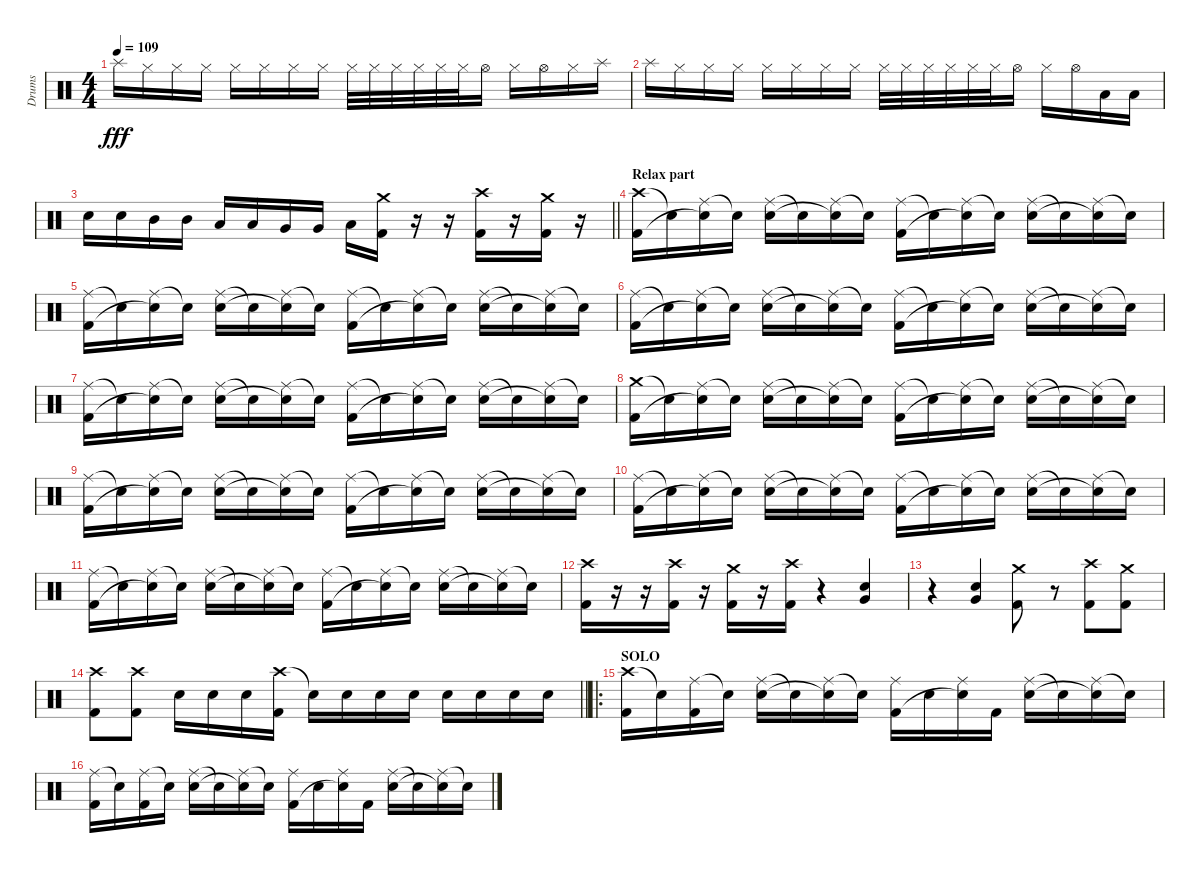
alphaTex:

\track ("Drums" "Drums") {instrument percussion}
\staff {score}
\articulation defaults
\ts (4 4)
\tempo 109
\clef neutral
\ks c "Splash (hit)".16{dy fff} "Hi-Hat (closed)".16 "Hi-Hat (closed)".16 "Hi-Hat (closed)".16 "Hi-Hat (closed)".16 "Hi-Hat (closed)".16 "Hi-Hat (closed)".16 "Hi-Hat (closed)".16 "Hi-Hat (closed)".32 "Hi-Hat (closed)".32 "Hi-Hat (closed)".32 "Hi-Hat (closed)".32 "Hi-Hat (closed)".32 "Hi-Hat (closed)".32 "Hi-Hat (open)".16 "Hi-Hat (closed)".16 "Hi-Hat (open)".16 "Hi-Hat (closed)".16 "Splash (hit)".16
|
"Splash (hit)".16 "Hi-Hat (closed)".16 "Hi-Hat (closed)".16 "Hi-Hat (closed)".16 "Hi-Hat (closed)".16 "Hi-Hat (closed)".16 "Hi-Hat (closed)".16 "Hi-Hat (closed)".16 "Hi-Hat (closed)".32 "Hi-Hat (closed)".32 "Hi-Hat (closed)".32 "Hi-Hat (closed)".32 "Hi-Hat (closed)".32 "Hi-Hat (closed)".32 "Hi-Hat (open)".16 "Hi-Hat (closed)".16 "Hi-Hat (open)".16 "Low Tom (hit)".16 "Low Tom (hit)".16 |
\barLineRight lightlight "Electric Snare (hit)".16 "Electric Snare (hit)".16 "Mid Tom (hit)".16 "Mid Tom (hit)".16 "Low Tom (hit)".16 "Low Tom (hit)".16 "Very Low Tom (hit)".16 "Very Low Tom (hit)".16 "Low Floor Tom (hit)".16
("Crash medium (hit)" "Kick (hit) 2").16 r.16 r.16 ("Crash high (hit)" "Kick (hit) 2").16 r.16 ("Crash medium (hit)" "Kick (hit) 2").16 r.16 |
\section ("" "Relax part")
("Crash high (hit)" "Kick (hit) 2").16 "Snare (hit)"{t}.16 ("Ride (middle)" "Snare (hit)"{t}).16 "Snare (hit)"{t}.16 ("Ride (middle)" "Electric Snare (hit)").16 "Snare (hit)"{t}.16 ("Ride (middle)" "Snare (hit)"{t}).16 "Snare (hit)"{t}.16 ("Ride (middle)" "Kick (hit) 2").16 "Snare (hit)"{t}.16 ("Ride (middle)" "Snare (hit)"{t}).16 "Snare (hit)"{t}.16 ("Ride (middle)" "Electric Snare (hit)").16 "Snare (hit)"{t}.16 ("Ride (middle)" "Snare (hit)"{t}).16 "Snare (hit)"{t}.16 |
("Ride (middle)" "Kick (hit) 2").16 "Snare (hit)"{t}.16 ("Ride (middle)" "Snare (hit)"{t}).16 "Snare (hit)"{t}.16 ("Ride (middle)" "Electric Snare (hit)").16 "Snare (hit)"{t}.16 ("Ride (middle)" "Snare (hit)"{t}).16 "Snare (hit)"{t}.16 ("Ride (middle)" "Kick (hit) 2").16 "Snare (hit)"{t}.16 ("Ride (middle)" "Snare (hit)"{t}).16 "Snare (hit)"{t}.16 ("Ride (middle)" "Electric Snare (hit)").16 "Snare (hit)"{t}.16 ("Ride (middle)" "Snare (hit)"{t}).16 "Snare (hit)"{t}.16 |
("Ride (middle)" "Kick (hit) 2").16 "Snare (hit)"{t}.16 ("Ride (middle)" "Snare (hit)"{t}).16 "Snare (hit)"{t}.16 ("Ride (middle)" "Electric Snare (hit)").16 "Snare (hit)"{t}.16 ("Ride (middle)" "Snare (hit)"{t}).16 "Snare (hit)"{t}.16 ("Ride (middle)" "Kick (hit) 2").16 "Snare (hit)"{t}.16 ("Ride (middle)" "Snare (hit)"{t}).16 "Snare (hit)"{t}.16 ("Ride (middle)" "Electric Snare (hit)").16 "Snare (hit)"{t}.16 ("Ride (middle)" "Snare (hit)"{t}).16 "Snare (hit)"{t}.16 |
("Ride (middle)" "Kick (hit) 2").16 "Snare (hit)"{t}.16 ("Ride (middle)" "Snare (hit)"{t}).16 "Snare (hit)"{t}.16 ("Ride (middle)" "Electric Snare (hit)").16 "Snare (hit)"{t}.16 ("Ride (middle)" "Snare (hit)"{t}).16 "Snare (hit)"{t}.16 ("Ride (middle)" "Kick (hit) 2").16 "Snare (hit)"{t}.16 ("Ride (middle)" "Snare (hit)"{t}).16 "Snare (hit)"{t}.16 ("Ride (middle)" "Electric Snare (hit)").16 "Snare (hit)"{t}.16 ("Ride (middle)" "Snare (hit)"{t}).16 "Snare (hit)"{t}.16 |
("Crash medium (hit)" "Kick (hit) 2").16 "Snare (hit)"{t}.16 ("Ride (middle)" "Snare (hit)"{t}).16 "Snare (hit)"{t}.16 ("Ride (middle)" "Electric Snare (hit)").16 "Snare (hit)"{t}.16 ("Ride (middle)" "Snare (hit)"{t}).16 "Snare (hit)"{t}.16 ("Ride (middle)" "Kick (hit) 2").16 "Snare (hit)"{t}.16 ("Ride (middle)" "Snare (hit)"{t}).16 "Snare (hit)"{t}.16 ("Ride (middle)" "Electric Snare (hit)").16 "Snare (hit)"{t}.16 ("Ride (middle)" "Snare (hit)"{t}).16 "Snare (hit)"{t}.16 |
("Ride (middle)" "Kick (hit) 2").16 "Snare (hit)"{t}.16 ("Ride (middle)" "Snare (hit)"{t}).16 "Snare (hit)"{t}.16 ("Ride (middle)" "Electric Snare (hit)").16 "Snare (hit)"{t}.16 ("Ride (middle)" "Snare (hit)"{t}).16 "Snare (hit)"{t}.16 ("Ride (middle)" "Kick (hit) 2").16 "Snare (hit)"{t}.16 ("Ride (middle)" "Snare (hit)"{t}).16 "Snare (hit)"{t}.16 ("Ride (middle)" "Electric Snare (hit)").16 "Snare (hit)"{t}.16 ("Ride (middle)" "Snare (hit)"{t}).16 "Snare (hit)"{t}.16 |
("Ride (middle)" "Kick (hit) 2").16 "Snare (hit)"{t}.16 ("Ride (middle)" "Snare (hit)"{t}).16 "Snare (hit)"{t}.16 ("Ride (middle)" "Electric Snare (hit)").16 "Snare (hit)"{t}.16 ("Ride (middle)" "Snare (hit)"{t}).16 "Snare (hit)"{t}.16 ("Ride (middle)" "Kick (hit) 2").16 "Snare (hit)"{t}.16 ("Ride (middle)" "Snare (hit)"{t}).16 "Snare (hit)"{t}.16 ("Ride (middle)" "Electric Snare (hit)").16 "Snare (hit)"{t}.16 ("Ride (middle)" "Snare (hit)"{t}).16 "Snare (hit)"{t}.16 |
("Ride (middle)" "Kick (hit) 2").16 "Snare (hit)"{t}.16 ("Ride (middle)" "Snare (hit)"{t}).16 "Snare (hit)"{t}.16 ("Ride (middle)" "Electric Snare (hit)").16 "Snare (hit)"{t}.16 ("Ride (middle)" "Snare (hit)"{t}).16 "Snare (hit)"{t}.16 ("Ride (middle)" "Kick (hit) 2").16 "Snare (hit)"{t}.16 ("Ride (middle)" "Snare (hit)"{t}).16 "Snare (hit)"{t}.16 ("Ride (middle)" "Electric Snare (hit)").16 "Snare (hit)"{t}.16 ("Ride (middle)" "Snare (hit)"{t}).16 "Snare (hit)"{t}.16 |
("Crash high (hit)" "Kick (hit) 2").16 r.16{volume 0} r.16 ("Crash high (hit)" "Kick (hit) 2").16{volume 16} r.16 ("Crash medium (hit)" "Kick (hit) 2").16 r.16 ("Crash high (hit)" "Kick (hit) 2").16 r.4 ("Electric Snare (hit)" "Very Low Tom (hit)").4 |
r.4 ("Electric Snare (hit)" "Very Low Tom (hit)").4 ("Crash medium (hit)" "Kick (hit) 2").8 r.8 ("Crash high (hit)" "Kick (hit) 2").8 ("Crash medium (hit)" "Kick (hit) 2").8 |
\barLineRight lightlight
("Crash high (hit)" "Kick (hit) 2").8 ("Crash high (hit)" "Kick (hit) 2").8 "Electric Snare (hit)".16 "Electric Snare (hit)".16 "Electric Snare (hit)".16 ("Crash high (hit)" "Kick (hit) 2").16 "Electric Snare (hit)"{t}.16 "Electric Snare (hit)".16 "Electric Snare (hit)".16 "Electric Snare (hit)".16 "Electric Snare (hit)".16 "Electric Snare (hit)".16 "Electric Snare (hit)".16 "Electric Snare (hit)".16 |
\ro
\section ("" "SOLO")
("Crash high (hit)" "Kick (hit) 2").16 "Snare (hit)"{t}.16 ("Ride (middle)" "Kick (hit) 2").16 "Snare (hit)"{t}.16 ("Ride (middle)" "Electric Snare (hit)").16 "Snare (hit)"{t}.16 ("Ride (middle)" "Snare (hit)"{t}).16 "Snare (hit)"{t}.16 ("Ride (middle)" "Kick (hit) 2").16 "Electric Snare (hit)".16 ("Ride (middle)" "Snare (hit)"{t}).16 "Kick (hit) 2".16 ("Ride (middle)" "Electric Snare (hit)").16 "Snare (hit)"{t}.16 ("Ride (middle)" "Snare (hit)"{t}).16 "Snare (hit)"{t}.16 |
("Ride (middle)" "Kick (hit) 2").16 "Snare (hit)"{t}.16 ("Ride (middle)" "Kick (hit) 2").16 "Snare (hit)"{t}.16 ("Ride (middle)" "Electric Snare (hit)").16 "Snare (hit)"{t}.16 ("Ride (middle)" "Snare (hit)"{t}).16 "Snare (hit)"{t}.16 ("Ride (middle)" "Kick (hit) 2").16 "Electric Snare (hit)".16 ("Ride (middle)" "Snare (hit)"{t}).16 "Kick (hit) 2".16 ("Ride (middle)" "Electric Snare (hit)").16 "Snare (hit)"{t}.16 ("Ride (middle)" "Snare (hit)"{t}).16 "Snare (hit)"{t}.16
